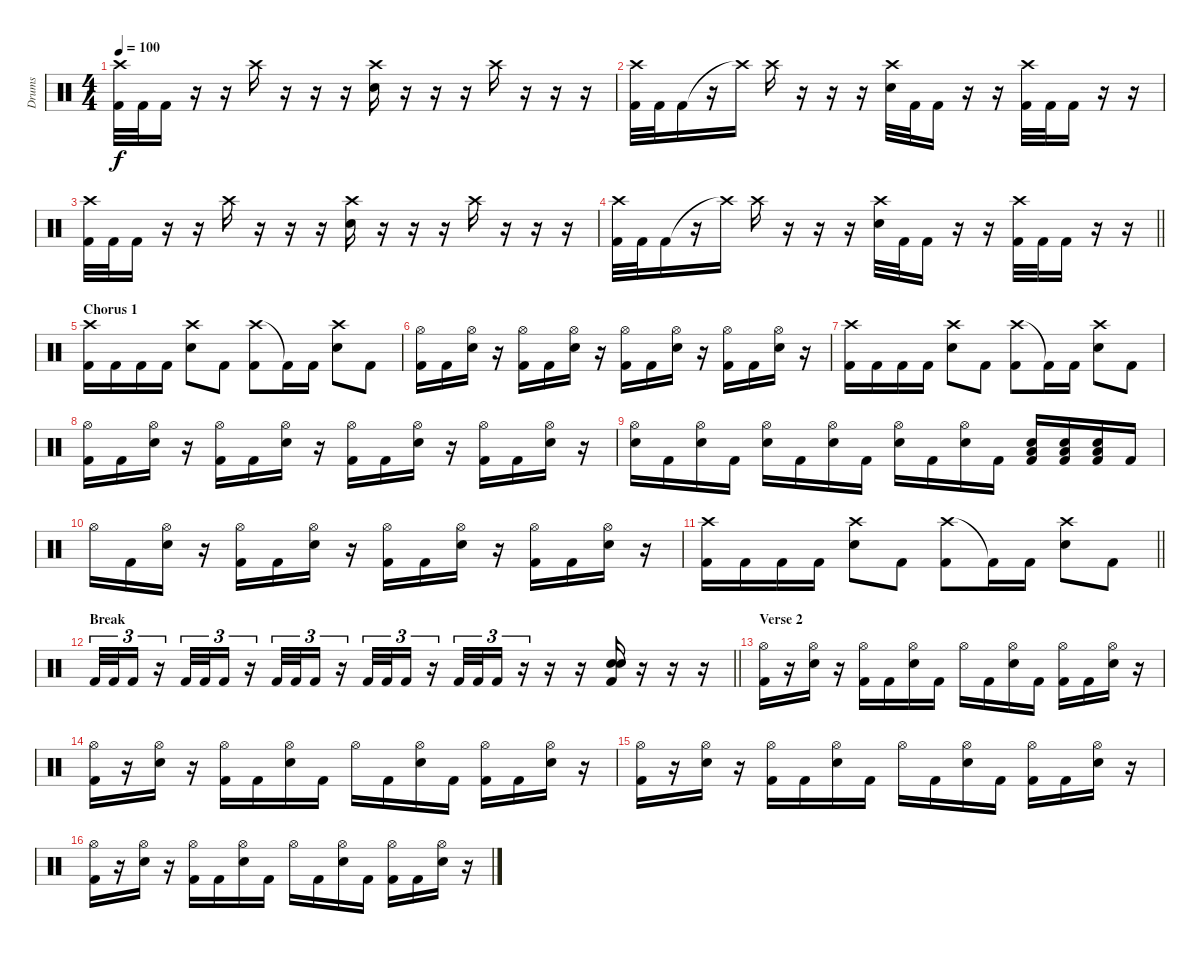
\track ("Drums" "Drums") {instrument percussion}
\staff {score}
\articulation defaults
\ts (4 4)
\tempo 100
\clef neutral
\ks c
("Crash high (hit)" "Kick (hit) 2").32{dy f} "Kick (hit) 2".32 "Kick (hit) 2".16 r.16 r.16 "Crash high (hit)".16 r.16 r.16 r.16 ("Crash high (hit)" "Snare (hit) 2").16 r.16 r.16 r.16 "Crash high (hit)".16 r.16 r.16 r.16 |
("Crash high (hit)" "Kick (hit) 2").32 "Kick (hit) 2".32 "Kick (hit) 2".16 r.16 "Crash high (hit)"{t}.16 "Crash high (hit)".16 r.16 r.16 r.16 ("Crash high (hit)" "Snare (hit) 2").32 "Kick (hit) 2".32 "Kick (hit) 2".16 r.16 r.16 ("Crash high (hit)" "Kick (hit) 2").32 "Kick (hit) 2".32 "Kick (hit) 2".16 r.16 r.16 |
("Crash high (hit)" "Kick (hit) 2").32 "Kick (hit) 2".32 "Kick (hit) 2".16 r.16 r.16 "Crash high (hit)".16 r.16 r.16 r.16 ("Crash high (hit)" "Snare (hit) 2").16 r.16 r.16 r.16 "Crash high (hit)".16 r.16 r.16 r.16 |
\barLineRight lightlight
("Crash high (hit)" "Kick (hit) 2").32 "Kick (hit) 2".32 "Kick (hit) 2".16 r.16 "Crash high (hit)"{t}.16 "Crash high (hit)".16 r.16 r.16 r.16 ("Crash high (hit)" "Snare (hit) 2").32 "Kick (hit) 2".32 "Kick (hit) 2".16 r.16 r.16 ("Crash high (hit)" "Kick (hit) 2").32 "Kick (hit) 2".32 "Kick (hit) 2".16 r.16 r.16 |
\section ("" "Chorus 1")
("Crash high (hit)" "Kick (hit) 2").16 "Kick (hit) 2".16 "Kick (hit) 2".16 "Kick (hit) 2".16 ("Crash high (hit)" "Snare (hit) 2").8 "Kick (hit) 2".8 ("Crash high (hit)" "Kick (hit) 2").8 "Kick (hit) 2"{t}.16 "Kick (hit) 2".16 ("Crash high (hit)" "Snare (hit) 2").8 "Kick (hit) 2".8 |
("Hi-Hat (open)" "Kick (hit) 2").16 "Kick (hit) 2".16 ("Hi-Hat (open)" "Snare (hit) 2").16 r.16 ("Hi-Hat (open)" "Kick (hit) 2").16 "Kick (hit) 2".16 ("Hi-Hat (open)" "Snare (hit) 2").16 r.16 ("Hi-Hat (open)" "Kick (hit) 2").16 "Kick (hit) 2".16 ("Hi-Hat (open)" "Snare (hit) 2").16 r.16 ("Hi-Hat (open)" "Kick (hit) 2").16 "Kick (hit) 2".16 ("Hi-Hat (open)" "Snare (hit) 2").16 r.16 |
("Crash high (hit)" "Kick (hit) 2").16 "Kick (hit) 2".16 "Kick (hit) 2".16 "Kick (hit) 2".16 ("Crash high (hit)" "Snare (hit) 2").8 "Kick (hit) 2".8 ("Crash high (hit)" "Kick (hit) 2").8 "Kick (hit) 2"{t}.16 "Kick (hit) 2".16 ("Crash high (hit)" "Snare (hit) 2").8 "Kick (hit) 2".8 |
("Hi-Hat (open)" "Kick (hit) 2").16 "Kick (hit) 2".16 ("Hi-Hat (open)" "Snare (hit) 2").16 r.16 ("Hi-Hat (open)" "Kick (hit) 2").16 "Kick (hit) 2".16 ("Hi-Hat (open)" "Snare (hit) 2").16 r.16 ("Hi-Hat (open)" "Kick (hit) 2").16 "Kick (hit) 2".16 ("Hi-Hat (open)" "Snare (hit) 2").16 r.16 ("Hi-Hat (open)" "Kick (hit) 2").16 "Kick (hit) 2".16 ("Hi-Hat (open)" "Snare (hit) 2").16 r.16 |
("Hi-Hat (open)" "Snare (hit) 2").16 "Kick (hit) 2".16 ("Hi-Hat (open)" "Snare (hit) 2").16 "Kick (hit) 2".16 ("Hi-Hat (open)" "Snare (hit) 2").16 "Kick (hit) 2".16 ("Hi-Hat (open)" "Snare (hit) 2").16 "Kick (hit) 2".16 ("Hi-Hat (open)" "Snare (hit) 2").16 "Kick (hit) 2".16 ("Hi-Hat (open)" "Snare (hit) 2").16 "Kick (hit) 2".16 ("Low Floor Tom (hit)" "Snare (hit) 2" "Kick (hit) 2").16 ("Low Floor Tom (hit)" "Snare (hit) 2" "Kick (hit) 2").16 ("Low Floor Tom (hit)" "Snare (hit) 2" "Kick (hit) 2").16 "Kick (hit) 2".16 |
"Hi-Hat (open)".16 "Kick (hit) 2".16 ("Hi-Hat (open)" "Snare (hit) 2").16 r.16 ("Hi-Hat (open)" "Kick (hit) 2").16 "Kick (hit) 2".16 ("Hi-Hat (open)" "Snare (hit) 2").16 r.16 ("Hi-Hat (open)" "Kick (hit) 2").16 "Kick (hit) 2".16 ("Hi-Hat (open)" "Snare (hit) 2").16 r.16 ("Hi-Hat (open)" "Kick (hit) 2").16 "Kick (hit) 2".16 ("Hi-Hat (open)" "Snare (hit) 2").16 r.16 |
\barLineRight lightlight
("Crash high (hit)" "Kick (hit) 2").16 "Kick (hit) 2".16 "Kick (hit) 2".16 "Kick (hit) 2".16 ("Crash high (hit)" "Snare (hit) 2").8 "Kick (hit) 2".8 ("Crash high (hit)" "Kick (hit) 2").8 "Kick (hit) 2"{t}.16 "Kick (hit) 2".16 ("Crash high (hit)" "Snare (hit) 2").8 "Kick (hit) 2".8 |
\section ("" "Break")
\barLineRight lightlight "Kick (hit) 2".32{tu (3 2)} "Kick (hit) 2".32{tu (3 2)} "Kick (hit) 2".16{tu (3 2)}
r.16{tu (3 2)} "Kick (hit) 2".32{tu (3 2)} "Kick (hit) 2".32{tu (3 2)} "Kick (hit) 2".16{tu (3 2)} r.16{tu (3 2)} "Kick (hit) 2".32{tu (3 2)} "Kick (hit) 2".32{tu (3 2)} "Kick (hit) 2".16{tu (3 2)} r.16{tu (3 2)} "Kick (hit) 2".32{tu (3 2)} "Kick (hit) 2".32{tu (3 2)} "Kick (hit) 2".16{tu (3 2)} r.16{tu (3 2)} "Kick (hit) 2".32{tu (3 2)} "Kick (hit) 2".32{tu (3 2)} "Kick (hit) 2".16{tu (3 2)} r.16{tu (3 2)} r.16 r.16 ("Kick (hit) 2" "Electric Snare (hit)" "Electric Snare (hit)").16 r.16 r.16 r.16 |
\section ("" "Verse 2")
("Hi-Hat (open)" "Kick (hit) 2").16 r.16 ("Hi-Hat (open)" "Snare (hit) 2").16 r.16 ("Hi-Hat (open)" "Kick (hit) 2").16 "Kick (hit) 2".16 ("Hi-Hat (open)" "Snare (hit) 2").16 "Kick (hit) 2".16 "Hi-Hat (open)".16 "Kick (hit) 2".16 ("Hi-Hat (open)" "Snare (hit) 2").16 "Kick (hit) 2".16 ("Hi-Hat (open)" "Kick (hit) 2").16 "Kick (hit) 2".16 ("Hi-Hat (open)" "Snare (hit) 2").16 r.16 |
("Hi-Hat (open)" "Kick (hit) 2").16 r.16 ("Hi-Hat (open)" "Snare (hit) 2").16 r.16 ("Hi-Hat (open)" "Kick (hit) 2").16 "Kick (hit) 2".16 ("Hi-Hat (open)" "Snare (hit) 2").16 "Kick (hit) 2".16 "Hi-Hat (open)".16 "Kick (hit) 2".16 ("Hi-Hat (open)" "Snare (hit) 2").16 "Kick (hit) 2".16 ("Hi-Hat (open)" "Kick (hit) 2").16 "Kick (hit) 2".16 ("Hi-Hat (open)" "Snare (hit) 2").16 r.16 |
("Hi-Hat (open)" "Kick (hit) 2").16 r.16 ("Hi-Hat (open)" "Snare (hit) 2").16 r.16 ("Hi-Hat (open)" "Kick (hit) 2").16 "Kick (hit) 2".16 ("Hi-Hat (open)" "Snare (hit) 2").16 "Kick (hit) 2".16 "Hi-Hat (open)".16 "Kick (hit) 2".16 ("Hi-Hat (open)" "Snare (hit) 2").16 "Kick (hit) 2".16 ("Hi-Hat (open)" "Kick (hit) 2").16 "Kick (hit) 2".16 ("Hi-Hat (open)" "Snare (hit) 2").16 r.16 |
("Hi-Hat (open)" "Kick (hit) 2").16 r.16 ("Hi-Hat (open)" "Snare (hit) 2").16 r.16 ("Hi-Hat (open)" "Kick (hit) 2").16 "Kick (hit) 2".16 ("Hi-Hat (open)" "Snare (hit) 2").16 "Kick (hit) 2".16 "Hi-Hat (open)".16 "Kick (hit) 2".16 ("Hi-Hat (open)" "Snare (hit) 2").16 "Kick (hit) 2".16 ("Hi-Hat (open)" "Kick (hit) 2").16 "Kick (hit) 2".16 ("Hi-Hat (open)" "Snare (hit) 2").16 r.16
